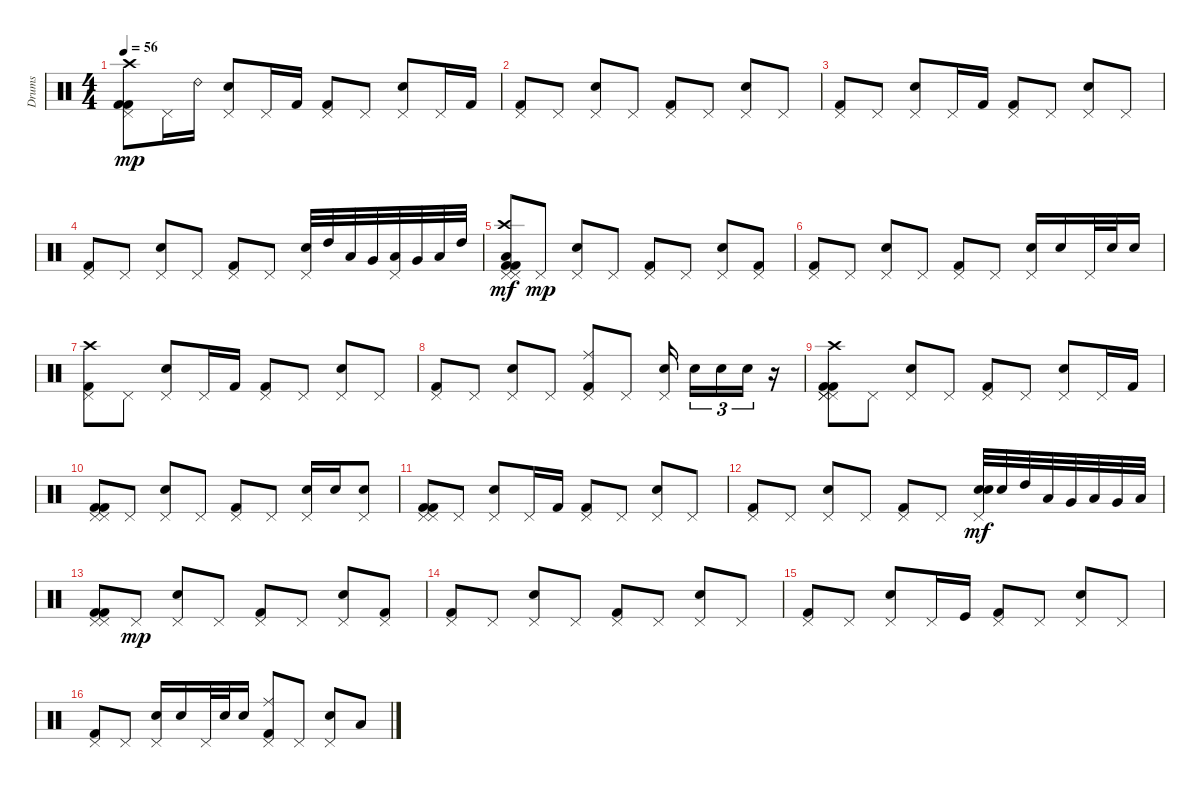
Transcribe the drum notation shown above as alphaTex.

\track ("Drums" "Drums") {instrument percussion}
\staff {score}
\articulation defaults
\ts (4 4)
\tempo 56
\clef neutral
\ks c
("Kick (hit) 2" "Pedal Hi-Hat (hit)" "Crash high (hit)" "Kick (hit) 2").8{dy mp} "Pedal Hi-Hat (hit)".16 "Ride (bell) 2".16 ("Pedal Hi-Hat (hit)" "Snare (hit) 2").8 "Pedal Hi-Hat (hit)".16 "Kick (hit) 2".16 ("Pedal Hi-Hat (hit)" "Kick (hit) 2").8 "Pedal Hi-Hat (hit)".8 ("Pedal Hi-Hat (hit)" "Snare (hit) 2").8 "Pedal Hi-Hat (hit)".16 "Kick (hit) 2".16 |
("Pedal Hi-Hat (hit)" "Kick (hit) 2").8 "Pedal Hi-Hat (hit)".8 ("Pedal Hi-Hat (hit)" "Snare (hit) 2").8 "Pedal Hi-Hat (hit)".8 ("Pedal Hi-Hat (hit)" "Kick (hit) 2").8 "Pedal Hi-Hat (hit)".8 ("Pedal Hi-Hat (hit)" "Snare (hit) 2").8 "Pedal Hi-Hat (hit)".8 |
("Pedal Hi-Hat (hit)" "Kick (hit) 2").8 "Pedal Hi-Hat (hit)".8 ("Pedal Hi-Hat (hit)" "Snare (hit) 2").8 "Pedal Hi-Hat (hit)".16 "Kick (hit) 2".16 ("Pedal Hi-Hat (hit)" "Kick (hit) 2").8 "Pedal Hi-Hat (hit)".8 ("Pedal Hi-Hat (hit)" "Snare (hit) 2").8 "Pedal Hi-Hat (hit)".8 |
("Pedal Hi-Hat (hit)" "Kick (hit) 2").8 "Pedal Hi-Hat (hit)".8 ("Pedal Hi-Hat (hit)" "Snare (hit) 2").8 "Pedal Hi-Hat (hit)".8 ("Pedal Hi-Hat (hit)" "Kick (hit) 2").8 "Pedal Hi-Hat (hit)".8 ("Pedal Hi-Hat (hit)" "Snare (hit) 2").32 "High Tom (hit)".32 "Low Tom (hit)".32 "Very Low Tom (hit)".32 ("Low Floor Tom (hit)" "Pedal Hi-Hat (hit)").32 "Very Low Tom (hit)".32 "Low Tom (hit)".32 "High Tom (hit)".32 |
("Crash high (hit)" "Low Tom (hit)" "Kick (hit) 2" "Pedal Hi-Hat (hit)" "Pedal Hi-Hat (hit)" "Kick (hit) 2").8{dy mf} "Pedal Hi-Hat (hit)".8{dy mp} ("Pedal Hi-Hat (hit)" "Snare (hit) 2").8 "Pedal Hi-Hat (hit)".8 ("Pedal Hi-Hat (hit)" "Kick (hit) 2").8 "Pedal Hi-Hat (hit)".8 ("Pedal Hi-Hat (hit)" "Snare (hit) 2").8 ("Pedal Hi-Hat (hit)" "Kick (hit) 2").8 |
("Pedal Hi-Hat (hit)" "Kick (hit) 2").8 "Pedal Hi-Hat (hit)".8 ("Pedal Hi-Hat (hit)" "Snare (hit) 2").8 "Pedal Hi-Hat (hit)".8 ("Pedal Hi-Hat (hit)" "Kick (hit) 2").8 "Pedal Hi-Hat (hit)".8 ("Pedal Hi-Hat (hit)" "Snare (hit) 2").16 "Electric Snare (hit)".16 "Pedal Hi-Hat (hit)".32 "Electric Snare (hit)".32 "Electric Snare (hit)".16 |
("Crash high (hit)" "Pedal Hi-Hat (hit)" "Kick (hit) 2").8 "Pedal Hi-Hat (hit)".8 ("Pedal Hi-Hat (hit)" "Snare (hit) 2").8 "Pedal Hi-Hat (hit)".16 "Kick (hit) 2".16 ("Pedal Hi-Hat (hit)" "Kick (hit) 2").8 "Pedal Hi-Hat (hit)".8 ("Pedal Hi-Hat (hit)" "Snare (hit) 2").8 "Pedal Hi-Hat (hit)".8 |
("Pedal Hi-Hat (hit)" "Kick (hit) 2").8 "Pedal Hi-Hat (hit)".8 ("Pedal Hi-Hat (hit)" "Snare (hit) 2").8 "Pedal Hi-Hat (hit)".8 ("Ride (middle)" "Pedal Hi-Hat (hit)" "Kick (hit) 2").8 "Pedal Hi-Hat (hit)".8 ("Pedal Hi-Hat (hit)" "Snare (hit) 2").16 "Electric Snare (hit)".16{tu (3 2)} "Electric Snare (hit)".16{tu (3 2)} "Electric Snare (hit)".16{tu (3 2)} r.16 |
("Crash high (hit)" "Pedal Hi-Hat (hit)" "Kick (hit) 2" "Kick (hit) 2" "Pedal Hi-Hat (hit)" "Pedal Hi-Hat (hit)").8 "Pedal Hi-Hat (hit)".8 ("Pedal Hi-Hat (hit)" "Snare (hit) 2").8 "Pedal Hi-Hat (hit)".8 ("Pedal Hi-Hat (hit)" "Kick (hit) 2").8 "Pedal Hi-Hat (hit)".8 ("Pedal Hi-Hat (hit)" "Snare (hit) 2").8 "Pedal Hi-Hat (hit)".16 "Kick (hit) 2".16 |
("Pedal Hi-Hat (hit)" "Kick (hit) 2" "Pedal Hi-Hat (hit)" "Kick (hit) 2").8 "Pedal Hi-Hat (hit)".8 ("Pedal Hi-Hat (hit)" "Snare (hit) 2").8 "Pedal Hi-Hat (hit)".8 ("Pedal Hi-Hat (hit)" "Kick (hit) 2").8 "Pedal Hi-Hat (hit)".8 ("Pedal Hi-Hat (hit)" "Snare (hit) 2").16 "Electric Snare (hit)".16 ("Pedal Hi-Hat (hit)" "Electric Snare (hit)").8 |
("Kick (hit) 2" "Pedal Hi-Hat (hit)" "Pedal Hi-Hat (hit)" "Kick (hit) 2").8 "Pedal Hi-Hat (hit)".8 ("Snare (hit) 2" "Pedal Hi-Hat (hit)").8 "Pedal Hi-Hat (hit)".16 "Kick (hit) 2".16 ("Kick (hit) 2" "Pedal Hi-Hat (hit)").8 "Pedal Hi-Hat (hit)".8 ("Snare (hit) 2" "Pedal Hi-Hat (hit)").8 "Pedal Hi-Hat (hit)".8 |
("Kick (hit) 2" "Pedal Hi-Hat (hit)").8 "Pedal Hi-Hat (hit)".8 ("Snare (hit) 2" "Pedal Hi-Hat (hit)").8 "Pedal Hi-Hat (hit)".8 ("Kick (hit) 2" "Pedal Hi-Hat (hit)").8 "Pedal Hi-Hat (hit)".8 ("Snare (hit) 2" "Pedal Hi-Hat (hit)" "Electric Snare (hit)").32{dy mf} "Snare (hit) 2".32 "High Tom (hit)".32 "Low Tom (hit)".32 "Very Low Tom (hit)".32 "Low Floor Tom (hit)".32 "Very Low Tom (hit)".32 "Low Floor Tom (hit)".32 |
("Kick (hit) 2" "Pedal Hi-Hat (hit)" "Pedal Hi-Hat (hit)" "Kick (hit) 2").8 "Pedal Hi-Hat (hit)".8{dy mp} ("Pedal Hi-Hat (hit)" "Snare (hit) 2").8 "Pedal Hi-Hat (hit)".8 ("Pedal Hi-Hat (hit)" "Kick (hit) 2").8 "Pedal Hi-Hat (hit)".8 ("Pedal Hi-Hat (hit)" "Snare (hit) 2").8 ("Pedal Hi-Hat (hit)" "Kick (hit) 2").8 |
("Pedal Hi-Hat (hit)" "Kick (hit) 2").8 "Pedal Hi-Hat (hit)".8 ("Pedal Hi-Hat (hit)" "Snare (hit) 2").8 "Pedal Hi-Hat (hit)".8 ("Pedal Hi-Hat (hit)" "Kick (hit) 2").8 "Pedal Hi-Hat (hit)".8 ("Pedal Hi-Hat (hit)" "Snare (hit) 2").8 "Pedal Hi-Hat (hit)".8 |
("Pedal Hi-Hat (hit)" "Kick (hit) 2").8 "Pedal Hi-Hat (hit)".8 ("Pedal Hi-Hat (hit)" "Snare (hit) 2").8 "Pedal Hi-Hat (hit)".16 "Kick (hit)".16 ("Pedal Hi-Hat (hit)" "Kick (hit) 2").8 "Pedal Hi-Hat (hit)".8 ("Pedal Hi-Hat (hit)" "Snare (hit) 2").8 "Pedal Hi-Hat (hit)".8 |
("Pedal Hi-Hat (hit)" "Kick (hit) 2").8 "Pedal Hi-Hat (hit)".8 ("Pedal Hi-Hat (hit)" "Snare (hit) 2").16 "Electric Snare (hit)".16 "Pedal Hi-Hat (hit)".32 "Electric Snare (hit)".32 "Electric Snare (hit)".16 ("Ride (middle)" "Pedal Hi-Hat (hit)" "Kick (hit) 2").8 "Pedal Hi-Hat (hit)".8 ("Pedal Hi-Hat (hit)" "Snare (hit) 2").8 "Low Floor Tom (hit)".8
